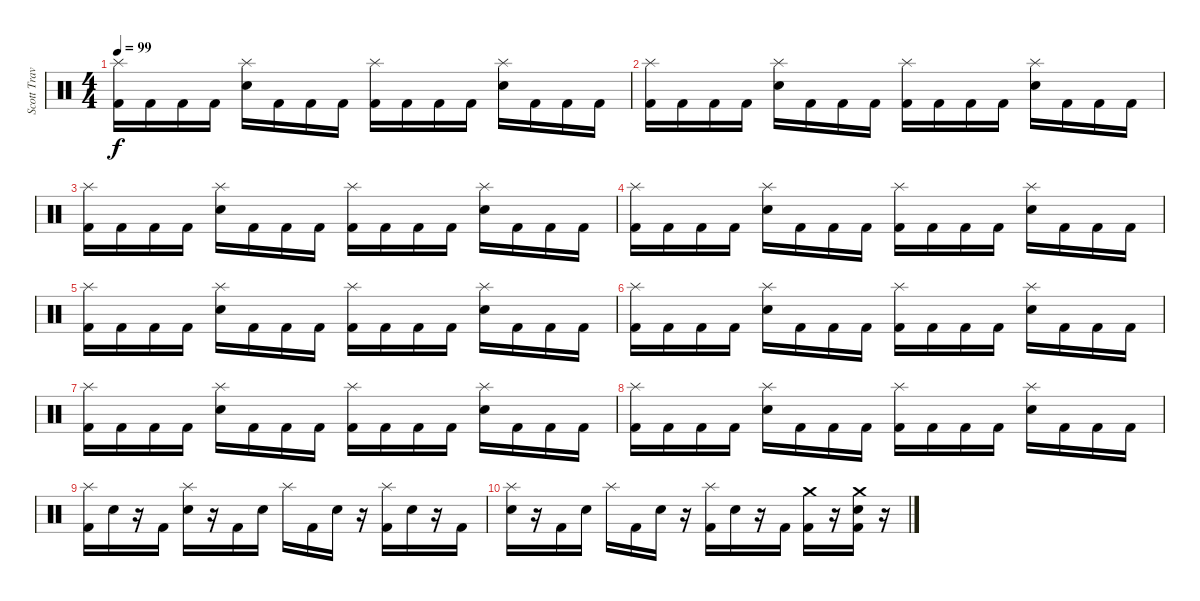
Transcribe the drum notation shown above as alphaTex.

\track ("Scott Travis" "Scott Trav") {instrument percussion}
\staff {score}
\articulation defaults
\ts (4 4)
\tempo 99
\clef neutral
\ks c
("Splash (hit)" "Kick (hit) 2").16{dy f} "Kick (hit) 2".16 "Kick (hit) 2".16 "Kick (hit) 2".16 ("Splash (hit)" "Electric Snare (hit)").16 "Kick (hit) 2".16 "Kick (hit) 2".16 "Kick (hit) 2".16 ("Splash (hit)" "Kick (hit) 2").16 "Kick (hit) 2".16 "Kick (hit) 2".16 "Kick (hit) 2".16 ("Splash (hit)" "Electric Snare (hit)").16 "Kick (hit) 2".16 "Kick (hit) 2".16 "Kick (hit) 2".16 |
("Splash (hit)" "Kick (hit) 2").16 "Kick (hit) 2".16 "Kick (hit) 2".16 "Kick (hit) 2".16 ("Splash (hit)" "Electric Snare (hit)").16 "Kick (hit) 2".16 "Kick (hit) 2".16 "Kick (hit) 2".16 ("Splash (hit)" "Kick (hit) 2").16 "Kick (hit) 2".16 "Kick (hit) 2".16 "Kick (hit) 2".16 ("Splash (hit)" "Electric Snare (hit)").16 "Kick (hit) 2".16 "Kick (hit) 2".16 "Kick (hit) 2".16 |
("Splash (hit)" "Kick (hit) 2").16 "Kick (hit) 2".16 "Kick (hit) 2".16 "Kick (hit) 2".16 ("Splash (hit)" "Electric Snare (hit)").16 "Kick (hit) 2".16 "Kick (hit) 2".16 "Kick (hit) 2".16 ("Splash (hit)" "Kick (hit) 2").16 "Kick (hit) 2".16 "Kick (hit) 2".16 "Kick (hit) 2".16 ("Splash (hit)" "Electric Snare (hit)").16 "Kick (hit) 2".16 "Kick (hit) 2".16 "Kick (hit) 2".16 |
("Splash (hit)" "Kick (hit) 2").16 "Kick (hit) 2".16 "Kick (hit) 2".16 "Kick (hit) 2".16 ("Splash (hit)" "Electric Snare (hit)").16 "Kick (hit) 2".16 "Kick (hit) 2".16 "Kick (hit) 2".16 ("Splash (hit)" "Kick (hit) 2").16 "Kick (hit) 2".16 "Kick (hit) 2".16 "Kick (hit) 2".16 ("Splash (hit)" "Electric Snare (hit)").16 "Kick (hit) 2".16 "Kick (hit) 2".16 "Kick (hit) 2".16 |
("Splash (hit)" "Kick (hit) 2").16 "Kick (hit) 2".16 "Kick (hit) 2".16 "Kick (hit) 2".16 ("Splash (hit)" "Electric Snare (hit)").16 "Kick (hit) 2".16 "Kick (hit) 2".16 "Kick (hit) 2".16 ("Splash (hit)" "Kick (hit) 2").16 "Kick (hit) 2".16 "Kick (hit) 2".16 "Kick (hit) 2".16 ("Splash (hit)" "Electric Snare (hit)").16 "Kick (hit) 2".16 "Kick (hit) 2".16 "Kick (hit) 2".16 |
("Splash (hit)" "Kick (hit) 2").16 "Kick (hit) 2".16 "Kick (hit) 2".16 "Kick (hit) 2".16 ("Splash (hit)" "Electric Snare (hit)").16 "Kick (hit) 2".16 "Kick (hit) 2".16 "Kick (hit) 2".16 ("Splash (hit)" "Kick (hit) 2").16 "Kick (hit) 2".16 "Kick (hit) 2".16 "Kick (hit) 2".16 ("Splash (hit)" "Electric Snare (hit)").16 "Kick (hit) 2".16 "Kick (hit) 2".16 "Kick (hit) 2".16 |
("Splash (hit)" "Kick (hit) 2").16 "Kick (hit) 2".16 "Kick (hit) 2".16 "Kick (hit) 2".16 ("Splash (hit)" "Electric Snare (hit)").16 "Kick (hit) 2".16 "Kick (hit) 2".16 "Kick (hit) 2".16 ("Splash (hit)" "Kick (hit) 2").16 "Kick (hit) 2".16 "Kick (hit) 2".16 "Kick (hit) 2".16 ("Splash (hit)" "Electric Snare (hit)").16 "Kick (hit) 2".16 "Kick (hit) 2".16 "Kick (hit) 2".16 |
("Splash (hit)" "Kick (hit) 2").16 "Kick (hit) 2".16 "Kick (hit) 2".16 "Kick (hit) 2".16 ("Splash (hit)" "Electric Snare (hit)").16 "Kick (hit) 2".16 "Kick (hit) 2".16 "Kick (hit) 2".16 ("Splash (hit)" "Kick (hit) 2").16 "Kick (hit) 2".16 "Kick (hit) 2".16 "Kick (hit) 2".16 ("Splash (hit)" "Electric Snare (hit)").16 "Kick (hit) 2".16 "Kick (hit) 2".16 "Kick (hit) 2".16 |
("Splash (hit)" "Kick (hit) 2").16 "Electric Snare (hit)".16 r.16 "Kick (hit) 2".16 ("Splash (hit)" "Electric Snare (hit)").16 r.16 "Kick (hit) 2".16 "Electric Snare (hit)".16 "Splash (hit)".16 "Kick (hit) 2".16 "Electric Snare (hit)".16 r.16 ("Splash (hit)" "Kick (hit) 2").16 "Electric Snare (hit)".16 r.16 "Kick (hit) 2".16 |
("Splash (hit)" "Electric Snare (hit)").16 r.16 "Kick (hit) 2".16 "Electric Snare (hit)".16 "Splash (hit)".16 "Kick (hit) 2".16 "Electric Snare (hit)".16 r.16 ("Splash (hit)" "Kick (hit) 2").16 "Electric Snare (hit)".16 r.16 "Kick (hit) 2".16 ("Crash medium (hit)" "Kick (hit) 2").16 r.16 ("Crash medium (hit)" "Electric Snare (hit)" "Kick (hit) 2").16 r.16
